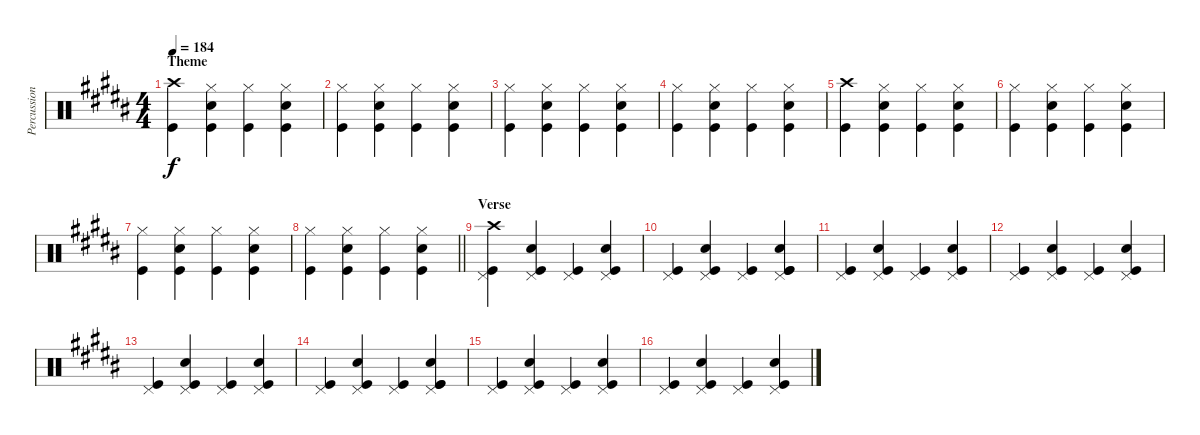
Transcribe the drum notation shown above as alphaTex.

\track ("Percussion" "Percussion") {instrument percussion}
\staff {score}
\articulation defaults
\ts (4 4)
\section ("" "Theme")
\tempo 184
\clef neutral
\ks b
("Crash high (hit)" "Kick (hit)").4{dy f} ("Snare (hit) 2" "Kick (hit)" "Hi-Hat (closed)").4 ("Kick (hit)" "Hi-Hat (closed)").4 ("Snare (hit) 2" "Kick (hit)" "Hi-Hat (closed)").4 |
("Hi-Hat (closed)" "Kick (hit)").4 ("Snare (hit) 2" "Kick (hit)" "Hi-Hat (closed)").4 ("Hi-Hat (closed)" "Kick (hit)").4 ("Snare (hit) 2" "Kick (hit)" "Hi-Hat (closed)").4 |
("Hi-Hat (closed)" "Kick (hit)").4 ("Kick (hit)" "Hi-Hat (closed)" "Snare (hit) 2").4 ("Hi-Hat (closed)" "Kick (hit)").4 ("Hi-Hat (closed)" "Kick (hit)" "Snare (hit) 2").4 |
("Hi-Hat (closed)" "Kick (hit)").4 ("Hi-Hat (closed)" "Kick (hit)" "Snare (hit) 2").4 ("Hi-Hat (closed)" "Kick (hit)").4 ("Hi-Hat (closed)" "Kick (hit)" "Snare (hit) 2").4 |
("Crash high (hit)" "Kick (hit)").4 ("Snare (hit) 2" "Kick (hit)" "Hi-Hat (closed)").4 ("Kick (hit)" "Hi-Hat (closed)").4 ("Snare (hit) 2" "Kick (hit)" "Hi-Hat (closed)").4 |
("Hi-Hat (closed)" "Kick (hit)").4 ("Snare (hit) 2" "Kick (hit)" "Hi-Hat (closed)").4 ("Hi-Hat (closed)" "Kick (hit)").4 ("Snare (hit) 2" "Kick (hit)" "Hi-Hat (closed)").4 |
("Hi-Hat (closed)" "Kick (hit)").4 ("Kick (hit)" "Hi-Hat (closed)" "Snare (hit) 2").4 ("Hi-Hat (closed)" "Kick (hit)").4 ("Hi-Hat (closed)" "Kick (hit)" "Snare (hit) 2").4 |
\barLineRight lightlight
("Hi-Hat (closed)" "Kick (hit)").4 ("Hi-Hat (closed)" "Kick (hit)" "Snare (hit) 2").4 ("Hi-Hat (closed)" "Kick (hit)").4 ("Hi-Hat (closed)" "Kick (hit)" "Snare (hit) 2").4 |
\section ("" "Verse")
("Pedal Hi-Hat (hit)" "Kick (hit)" "Crash high (hit)").4 ("Kick (hit)" "Pedal Hi-Hat (hit)" "Snare (hit) 2").4 ("Kick (hit)" "Pedal Hi-Hat (hit)").4 ("Kick (hit)" "Pedal Hi-Hat (hit)" "Snare (hit) 2").4 |
("Kick (hit)" "Pedal Hi-Hat (hit)").4 ("Kick (hit)" "Pedal Hi-Hat (hit)" "Snare (hit) 2").4 ("Kick (hit)" "Pedal Hi-Hat (hit)").4 ("Kick (hit)" "Pedal Hi-Hat (hit)" "Kick (hit)" "Snare (hit) 2").4 |
("Kick (hit)" "Pedal Hi-Hat (hit)").4 ("Kick (hit)" "Pedal Hi-Hat (hit)" "Snare (hit) 2").4 ("Kick (hit)" "Pedal Hi-Hat (hit)").4 ("Kick (hit)" "Pedal Hi-Hat (hit)" "Snare (hit) 2").4 |
("Kick (hit)" "Pedal Hi-Hat (hit)").4 ("Kick (hit)" "Pedal Hi-Hat (hit)" "Snare (hit) 2").4 ("Kick (hit)" "Pedal Hi-Hat (hit)").4 ("Kick (hit)" "Pedal Hi-Hat (hit)" "Snare (hit) 2").4 |
("Pedal Hi-Hat (hit)" "Kick (hit)").4 ("Kick (hit)" "Pedal Hi-Hat (hit)" "Snare (hit) 2").4 ("Kick (hit)" "Pedal Hi-Hat (hit)").4 ("Kick (hit)" "Pedal Hi-Hat (hit)" "Snare (hit) 2").4 |
("Kick (hit)" "Pedal Hi-Hat (hit)").4 ("Kick (hit)" "Pedal Hi-Hat (hit)" "Snare (hit) 2").4 ("Kick (hit)" "Pedal Hi-Hat (hit)").4 ("Kick (hit)" "Pedal Hi-Hat (hit)" "Kick (hit)" "Snare (hit) 2").4 |
("Kick (hit)" "Pedal Hi-Hat (hit)").4 ("Kick (hit)" "Pedal Hi-Hat (hit)" "Snare (hit) 2").4 ("Kick (hit)" "Pedal Hi-Hat (hit)").4 ("Kick (hit)" "Pedal Hi-Hat (hit)" "Snare (hit) 2").4 |
("Kick (hit)" "Pedal Hi-Hat (hit)").4 ("Kick (hit)" "Pedal Hi-Hat (hit)" "Snare (hit) 2").4 ("Kick (hit)" "Pedal Hi-Hat (hit)").4 ("Kick (hit)" "Pedal Hi-Hat (hit)" "Snare (hit) 2").4
